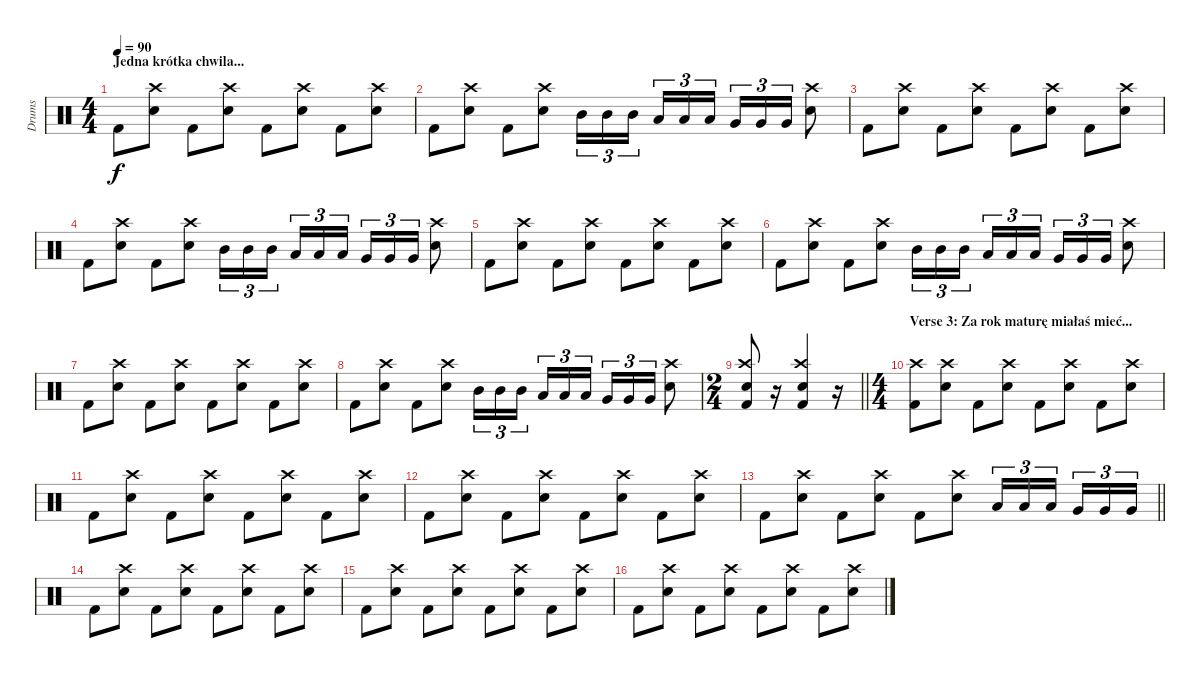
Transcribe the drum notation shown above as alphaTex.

\track ("Drums" "Drums") {instrument percussion}
\staff {score}
\articulation defaults
\ts (4 4)
\section ("" "Jedna krótka chwila...")
\tempo 90
\clef neutral
\ks c "Kick (hit) 2".8{dy f}
("Crash high (hit)" "Snare (hit) 2").8 "Kick (hit) 2".8 ("Crash high (hit)" "Snare (hit) 2").8 "Kick (hit) 2".8 ("Crash high (hit)" "Snare (hit) 2").8 "Kick (hit) 2".8 ("Crash high (hit)" "Snare (hit) 2").8 |
"Kick (hit) 2".8 ("Crash high (hit)" "Snare (hit) 2").8 "Kick (hit) 2".8 ("Crash high (hit)" "Snare (hit) 2").8 "Mid Tom (hit)".16{tu (3 2)} "Mid Tom (hit)".16{tu (3 2)} "Mid Tom (hit)".16{tu (3 2) beam splitsecondary} "Low Tom (hit)".16{tu (3 2)} "Low Tom (hit)".16{tu (3 2)} "Low Tom (hit)".16{tu (3 2)} "Very Low Tom (hit)".16{tu (3 2)} "Very Low Tom (hit)".16{tu (3 2)} "Very Low Tom (hit)".16{tu (3 2)} ("Crash high (hit)" "Snare (hit) 2").8 |
"Kick (hit) 2".8 ("Crash high (hit)" "Snare (hit) 2").8 "Kick (hit) 2".8 ("Crash high (hit)" "Snare (hit) 2").8 "Kick (hit) 2".8 ("Crash high (hit)" "Snare (hit) 2").8 "Kick (hit) 2".8 ("Crash high (hit)" "Snare (hit) 2").8 |
"Kick (hit) 2".8 ("Crash high (hit)" "Snare (hit) 2").8 "Kick (hit) 2".8 ("Crash high (hit)" "Snare (hit) 2").8 "Mid Tom (hit)".16{tu (3 2)} "Mid Tom (hit)".16{tu (3 2)} "Mid Tom (hit)".16{tu (3 2) beam splitsecondary} "Low Tom (hit)".16{tu (3 2)} "Low Tom (hit)".16{tu (3 2)} "Low Tom (hit)".16{tu (3 2)} "Very Low Tom (hit)".16{tu (3 2)} "Very Low Tom (hit)".16{tu (3 2)} "Very Low Tom (hit)".16{tu (3 2)} ("Crash high (hit)" "Snare (hit) 2").8 |
"Kick (hit) 2".8 ("Crash high (hit)" "Snare (hit) 2").8 "Kick (hit) 2".8 ("Crash high (hit)" "Snare (hit) 2").8 "Kick (hit) 2".8 ("Crash high (hit)" "Snare (hit) 2").8 "Kick (hit) 2".8 ("Crash high (hit)" "Snare (hit) 2").8 |
"Kick (hit) 2".8 ("Crash high (hit)" "Snare (hit) 2").8 "Kick (hit) 2".8 ("Crash high (hit)" "Snare (hit) 2").8 "Mid Tom (hit)".16{tu (3 2)} "Mid Tom (hit)".16{tu (3 2)} "Mid Tom (hit)".16{tu (3 2) beam splitsecondary} "Low Tom (hit)".16{tu (3 2)} "Low Tom (hit)".16{tu (3 2)} "Low Tom (hit)".16{tu (3 2)} "Very Low Tom (hit)".16{tu (3 2)} "Very Low Tom (hit)".16{tu (3 2)} "Very Low Tom (hit)".16{tu (3 2)} ("Crash high (hit)" "Snare (hit) 2").8 |
"Kick (hit) 2".8 ("Crash high (hit)" "Snare (hit) 2").8 "Kick (hit) 2".8 ("Crash high (hit)" "Snare (hit) 2").8 "Kick (hit) 2".8 ("Crash high (hit)" "Snare (hit) 2").8 "Kick (hit) 2".8 ("Crash high (hit)" "Snare (hit) 2").8 |
"Kick (hit) 2".8 ("Crash high (hit)" "Snare (hit) 2").8 "Kick (hit) 2".8 ("Crash high (hit)" "Snare (hit) 2").8 "Mid Tom (hit)".16{tu (3 2)} "Mid Tom (hit)".16{tu (3 2)} "Mid Tom (hit)".16{tu (3 2) beam splitsecondary} "Low Tom (hit)".16{tu (3 2)} "Low Tom (hit)".16{tu (3 2)} "Low Tom (hit)".16{tu (3 2)} "Very Low Tom (hit)".16{tu (3 2)} "Very Low Tom (hit)".16{tu (3 2)} "Very Low Tom (hit)".16{tu (3 2)} ("Crash high (hit)" "Snare (hit) 2").8 |
\ts (2 4)
\barLineRight lightlight
("Crash high (hit)" "Snare (hit) 2" "Kick (hit) 2").8 r.16 ("Crash high (hit)" "Snare (hit) 2" "Kick (hit) 2").4 r.16 |
\ts (4 4)
\section ("" "Verse 3: Za rok maturę miałaś mieć...")
("Crash high (hit)" "Kick (hit) 2").8 ("Crash high (hit)" "Snare (hit) 2").8 "Kick (hit) 2".8 ("Crash high (hit)" "Snare (hit) 2").8 "Kick (hit) 2".8 ("Crash high (hit)" "Snare (hit) 2").8 "Kick (hit) 2".8 ("Crash high (hit)" "Snare (hit) 2").8 |
"Kick (hit) 2".8 ("Crash high (hit)" "Snare (hit) 2").8 "Kick (hit) 2".8 ("Crash high (hit)" "Snare (hit) 2").8 "Kick (hit) 2".8 ("Crash high (hit)" "Snare (hit) 2").8 "Kick (hit) 2".8 ("Crash high (hit)" "Snare (hit) 2").8 |
"Kick (hit) 2".8 ("Crash high (hit)" "Snare (hit) 2").8 "Kick (hit) 2".8 ("Crash high (hit)" "Snare (hit) 2").8 "Kick (hit) 2".8 ("Crash high (hit)" "Snare (hit) 2").8 "Kick (hit) 2".8 ("Crash high (hit)" "Snare (hit) 2").8 |
\barLineRight lightlight "Kick (hit) 2".8
("Crash high (hit)" "Snare (hit) 2").8 "Kick (hit) 2".8 ("Crash high (hit)" "Snare (hit) 2").8 "Kick (hit) 2".8 ("Crash high (hit)" "Snare (hit) 2").8 "Low Tom (hit)".16{tu (3 2)} "Low Tom (hit)".16{tu (3 2)} "Low Tom (hit)".16{tu (3 2) beam splitsecondary} "Very Low Tom (hit)".16{tu (3 2)} "Very Low Tom (hit)".16{tu (3 2)} "Very Low Tom (hit)".16{tu (3 2)} |
"Kick (hit) 2".8 ("Crash high (hit)" "Snare (hit) 2").8 "Kick (hit) 2".8 ("Crash high (hit)" "Snare (hit) 2").8 "Kick (hit) 2".8 ("Crash high (hit)" "Snare (hit) 2").8 "Kick (hit) 2".8 ("Crash high (hit)" "Snare (hit) 2").8 |
"Kick (hit) 2".8 ("Crash high (hit)" "Snare (hit) 2").8 "Kick (hit) 2".8 ("Crash high (hit)" "Snare (hit) 2").8 "Kick (hit) 2".8 ("Crash high (hit)" "Snare (hit) 2").8 "Kick (hit) 2".8 ("Crash high (hit)" "Snare (hit) 2").8 |
"Kick (hit) 2".8 ("Crash high (hit)" "Snare (hit) 2").8 "Kick (hit) 2".8 ("Crash high (hit)" "Snare (hit) 2").8 "Kick (hit) 2".8 ("Crash high (hit)" "Snare (hit) 2").8 "Kick (hit) 2".8 ("Crash high (hit)" "Snare (hit) 2").8
